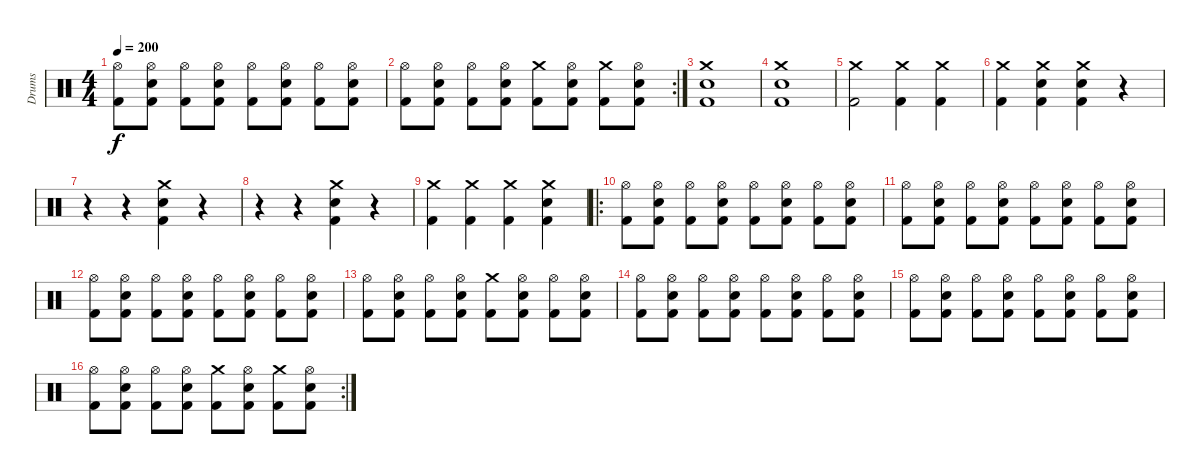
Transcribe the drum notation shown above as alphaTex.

\track ("Drums" "Drums") {instrument percussion}
\staff {score}
\articulation defaults
\ts (4 4)
\tempo 200
\clef neutral
\ks c
("Hi-Hat (open)" "Kick (hit) 2").8{dy f} ("Hi-Hat (open)" "Electric Snare (hit)" "Kick (hit) 2").8 ("Hi-Hat (open)" "Kick (hit) 2").8 ("Hi-Hat (open)" "Electric Snare (hit)" "Kick (hit) 2").8 ("Hi-Hat (open)" "Kick (hit) 2").8 ("Hi-Hat (open)" "Electric Snare (hit)" "Kick (hit) 2").8 ("Hi-Hat (open)" "Kick (hit) 2").8 ("Hi-Hat (open)" "Electric Snare (hit)" "Kick (hit) 2").8 |
\rc 2
("Hi-Hat (open)" "Kick (hit) 2").8 ("Hi-Hat (open)" "Electric Snare (hit)" "Kick (hit) 2").8 ("Hi-Hat (open)" "Kick (hit) 2").8 ("Hi-Hat (open)" "Electric Snare (hit)" "Kick (hit) 2").8 ("Crash medium (hit)" "Kick (hit) 2").8 ("Hi-Hat (open)" "Electric Snare (hit)" "Kick (hit) 2").8 ("Crash medium (hit)" "Kick (hit) 2").8 ("Hi-Hat (open)" "Electric Snare (hit)" "Kick (hit) 2").8 |
("Crash medium (hit)" "Electric Snare (hit)" "Kick (hit) 2").1 |
("Crash medium (hit)" "Electric Snare (hit)" "Kick (hit) 2").1 |
("Crash medium (hit)" "Kick (hit) 2").2 ("Crash medium (hit)" "Kick (hit) 2").4 ("Crash medium (hit)" "Kick (hit) 2").4 |
("Crash medium (hit)" "Kick (hit) 2").4 ("Crash medium (hit)" "Electric Snare (hit)" "Kick (hit) 2").4 ("Crash medium (hit)" "Electric Snare (hit)" "Kick (hit) 2").4 r.4 |
r.4 r.4 ("Crash medium (hit)" "Electric Snare (hit)" "Kick (hit) 2").4 r.4 |
r.4 r.4 ("Crash medium (hit)" "Electric Snare (hit)" "Kick (hit) 2").4 r.4 |
("Crash medium (hit)" "Kick (hit) 2").4 ("Crash medium (hit)" "Kick (hit) 2").4 ("Crash medium (hit)" "Kick (hit) 2").4 ("Crash medium (hit)" "Electric Snare (hit)" "Kick (hit) 2").4 |
\ro
("Hi-Hat (open)" "Kick (hit) 2").8 ("Hi-Hat (open)" "Electric Snare (hit)" "Kick (hit) 2").8 ("Hi-Hat (open)" "Kick (hit) 2").8 ("Hi-Hat (open)" "Electric Snare (hit)" "Kick (hit) 2").8 ("Hi-Hat (open)" "Kick (hit) 2").8 ("Hi-Hat (open)" "Electric Snare (hit)" "Kick (hit) 2").8 ("Hi-Hat (open)" "Kick (hit) 2").8 ("Hi-Hat (open)" "Electric Snare (hit)" "Kick (hit) 2").8 |
("Hi-Hat (open)" "Kick (hit) 2").8 ("Hi-Hat (open)" "Electric Snare (hit)" "Kick (hit) 2").8 ("Hi-Hat (open)" "Kick (hit) 2").8 ("Hi-Hat (open)" "Electric Snare (hit)" "Kick (hit) 2").8 ("Hi-Hat (open)" "Kick (hit) 2").8 ("Hi-Hat (open)" "Electric Snare (hit)" "Kick (hit) 2").8 ("Hi-Hat (open)" "Kick (hit) 2").8 ("Hi-Hat (open)" "Electric Snare (hit)" "Kick (hit) 2").8 |
("Hi-Hat (open)" "Kick (hit) 2").8 ("Hi-Hat (open)" "Electric Snare (hit)" "Kick (hit) 2").8 ("Hi-Hat (open)" "Kick (hit) 2").8 ("Hi-Hat (open)" "Electric Snare (hit)" "Kick (hit) 2").8 ("Hi-Hat (open)" "Kick (hit) 2").8 ("Hi-Hat (open)" "Electric Snare (hit)" "Kick (hit) 2").8 ("Hi-Hat (open)" "Kick (hit) 2").8 ("Hi-Hat (open)" "Electric Snare (hit)" "Kick (hit) 2").8 |
("Hi-Hat (open)" "Kick (hit) 2").8 ("Hi-Hat (open)" "Electric Snare (hit)" "Kick (hit) 2").8 ("Hi-Hat (open)" "Kick (hit) 2").8 ("Hi-Hat (open)" "Electric Snare (hit)" "Kick (hit) 2").8 ("Crash medium (hit)" "Kick (hit) 2").8 ("Hi-Hat (open)" "Electric Snare (hit)" "Kick (hit) 2").8 ("Hi-Hat (open)" "Kick (hit) 2").8 ("Hi-Hat (open)" "Electric Snare (hit)" "Kick (hit) 2").8 |
("Hi-Hat (open)" "Kick (hit) 2").8 ("Hi-Hat (open)" "Electric Snare (hit)" "Kick (hit) 2").8 ("Hi-Hat (open)" "Kick (hit) 2").8 ("Hi-Hat (open)" "Electric Snare (hit)" "Kick (hit) 2").8 ("Hi-Hat (open)" "Kick (hit) 2").8 ("Hi-Hat (open)" "Electric Snare (hit)" "Kick (hit) 2").8 ("Hi-Hat (open)" "Kick (hit) 2").8 ("Hi-Hat (open)" "Electric Snare (hit)" "Kick (hit) 2").8 |
("Hi-Hat (open)" "Kick (hit) 2").8 ("Hi-Hat (open)" "Electric Snare (hit)" "Kick (hit) 2").8 ("Hi-Hat (open)" "Kick (hit) 2").8 ("Hi-Hat (open)" "Electric Snare (hit)" "Kick (hit) 2").8 ("Hi-Hat (open)" "Kick (hit) 2").8 ("Hi-Hat (open)" "Electric Snare (hit)" "Kick (hit) 2").8 ("Hi-Hat (open)" "Kick (hit) 2").8 ("Hi-Hat (open)" "Electric Snare (hit)" "Kick (hit) 2").8 |
\rc 2
("Hi-Hat (open)" "Kick (hit) 2").8 ("Hi-Hat (open)" "Electric Snare (hit)" "Kick (hit) 2").8 ("Hi-Hat (open)" "Kick (hit) 2").8 ("Hi-Hat (open)" "Electric Snare (hit)" "Kick (hit) 2").8 ("Crash medium (hit)" "Kick (hit) 2").8 ("Hi-Hat (open)" "Electric Snare (hit)" "Kick (hit) 2").8 ("Crash medium (hit)" "Kick (hit) 2").8 ("Hi-Hat (open)" "Electric Snare (hit)" "Kick (hit) 2").8
